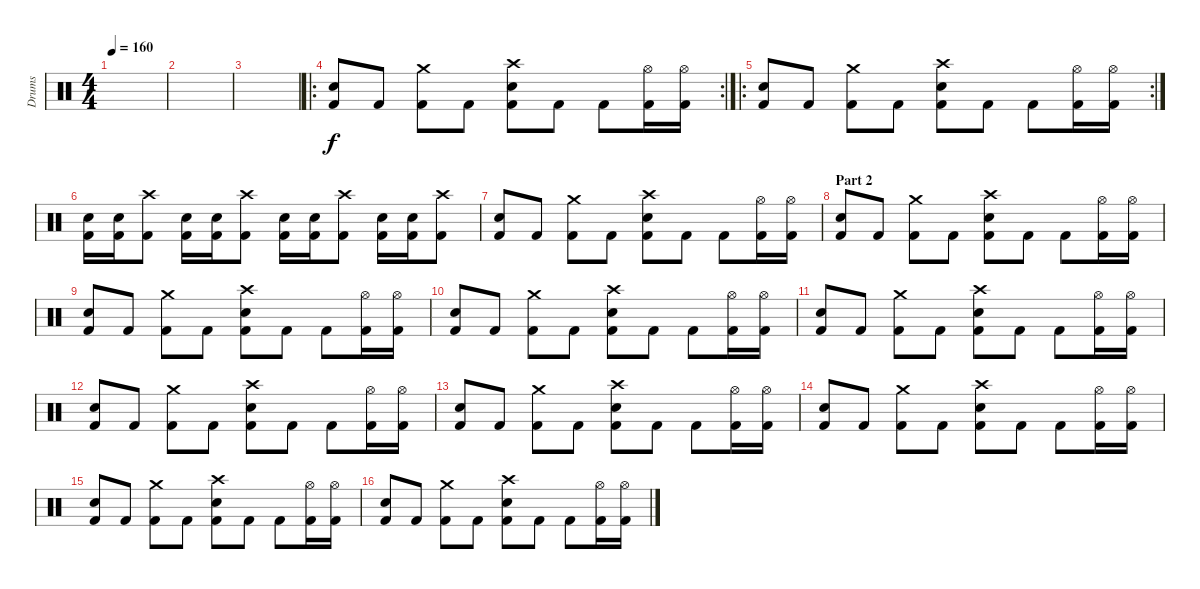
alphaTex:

\track ("Drums" "Drums") {instrument percussion}
\staff {score}
\articulation defaults
\ts (4 4)
\tempo 160
\clef neutral
\ks c
|
|
|
\ro
\rc 2
("Kick (hit) 2" "Electric Snare (hit)").8 "Kick (hit) 2".8 ("Kick (hit) 2" "Crash medium (hit)").8 "Kick (hit) 2".8 ("Kick (hit) 2" "Crash high (hit)" "Electric Snare (hit)").8 "Kick (hit) 2".8 "Kick (hit) 2".8 ("Kick (hit) 2" "Hi-Hat (open)").16 ("Kick (hit) 2" "Hi-Hat (open)").16 |
\ro
\rc 2
("Kick (hit) 2" "Electric Snare (hit)").8 "Kick (hit) 2".8 ("Kick (hit) 2" "Crash medium (hit)").8 "Kick (hit) 2".8 ("Kick (hit) 2" "Crash high (hit)" "Electric Snare (hit)").8 "Kick (hit) 2".8 "Kick (hit) 2".8 ("Kick (hit) 2" "Hi-Hat (open)").16 ("Kick (hit) 2" "Hi-Hat (open)").16 |
("Kick (hit) 2" "Electric Snare (hit)").16 ("Kick (hit) 2" "Electric Snare (hit)").16 ("Kick (hit) 2" "Crash high (hit)").8 ("Kick (hit) 2" "Electric Snare (hit)").16 ("Kick (hit) 2" "Electric Snare (hit)").16 ("Kick (hit) 2" "Crash high (hit)").8 ("Kick (hit) 2" "Electric Snare (hit)").16 ("Kick (hit) 2" "Electric Snare (hit)").16 ("Kick (hit) 2" "Crash high (hit)").8 ("Kick (hit) 2" "Electric Snare (hit)").16 ("Kick (hit) 2" "Electric Snare (hit)").16 ("Kick (hit) 2" "Crash high (hit)").8 |
("Kick (hit) 2" "Electric Snare (hit)").8 "Kick (hit) 2".8 ("Kick (hit) 2" "Crash medium (hit)").8 "Kick (hit) 2".8 ("Kick (hit) 2" "Crash high (hit)" "Electric Snare (hit)").8 "Kick (hit) 2".8 "Kick (hit) 2".8 ("Kick (hit) 2" "Hi-Hat (open)").16 ("Kick (hit) 2" "Hi-Hat (open)").16 |
\section ("" "Part 2")
("Kick (hit) 2" "Electric Snare (hit)").8 "Kick (hit) 2".8 ("Kick (hit) 2" "Crash medium (hit)").8 "Kick (hit) 2".8 ("Kick (hit) 2" "Crash high (hit)" "Electric Snare (hit)").8 "Kick (hit) 2".8 "Kick (hit) 2".8 ("Kick (hit) 2" "Hi-Hat (open)").16 ("Kick (hit) 2" "Hi-Hat (open)").16 |
("Kick (hit) 2" "Electric Snare (hit)").8 "Kick (hit) 2".8 ("Kick (hit) 2" "Crash medium (hit)").8 "Kick (hit) 2".8 ("Kick (hit) 2" "Crash high (hit)" "Electric Snare (hit)").8 "Kick (hit) 2".8 "Kick (hit) 2".8 ("Kick (hit) 2" "Hi-Hat (open)").16 ("Kick (hit) 2" "Hi-Hat (open)").16 |
("Kick (hit) 2" "Electric Snare (hit)").8 "Kick (hit) 2".8 ("Kick (hit) 2" "Crash medium (hit)").8 "Kick (hit) 2".8 ("Kick (hit) 2" "Crash high (hit)" "Electric Snare (hit)").8 "Kick (hit) 2".8 "Kick (hit) 2".8 ("Kick (hit) 2" "Hi-Hat (open)").16 ("Kick (hit) 2" "Hi-Hat (open)").16 |
("Kick (hit) 2" "Electric Snare (hit)").8 "Kick (hit) 2".8 ("Kick (hit) 2" "Crash medium (hit)").8 "Kick (hit) 2".8 ("Kick (hit) 2" "Crash high (hit)" "Electric Snare (hit)").8 "Kick (hit) 2".8 "Kick (hit) 2".8 ("Kick (hit) 2" "Hi-Hat (open)").16 ("Kick (hit) 2" "Hi-Hat (open)").16 |
("Kick (hit) 2" "Electric Snare (hit)").8 "Kick (hit) 2".8 ("Kick (hit) 2" "Crash medium (hit)").8 "Kick (hit) 2".8 ("Kick (hit) 2" "Crash high (hit)" "Electric Snare (hit)").8 "Kick (hit) 2".8 "Kick (hit) 2".8 ("Kick (hit) 2" "Hi-Hat (open)").16 ("Kick (hit) 2" "Hi-Hat (open)").16 |
("Kick (hit) 2" "Electric Snare (hit)").8 "Kick (hit) 2".8 ("Kick (hit) 2" "Crash medium (hit)").8 "Kick (hit) 2".8 ("Kick (hit) 2" "Crash high (hit)" "Electric Snare (hit)").8 "Kick (hit) 2".8 "Kick (hit) 2".8 ("Kick (hit) 2" "Hi-Hat (open)").16 ("Kick (hit) 2" "Hi-Hat (open)").16 |
("Kick (hit) 2" "Electric Snare (hit)").8 "Kick (hit) 2".8 ("Kick (hit) 2" "Crash medium (hit)").8 "Kick (hit) 2".8 ("Kick (hit) 2" "Crash high (hit)" "Electric Snare (hit)").8 "Kick (hit) 2".8 "Kick (hit) 2".8 ("Kick (hit) 2" "Hi-Hat (open)").16 ("Kick (hit) 2" "Hi-Hat (open)").16 |
("Kick (hit) 2" "Electric Snare (hit)").8 "Kick (hit) 2".8 ("Kick (hit) 2" "Crash medium (hit)").8 "Kick (hit) 2".8 ("Kick (hit) 2" "Crash high (hit)" "Electric Snare (hit)").8 "Kick (hit) 2".8 "Kick (hit) 2".8 ("Kick (hit) 2" "Hi-Hat (open)").16 ("Kick (hit) 2" "Hi-Hat (open)").16 |
("Kick (hit) 2" "Electric Snare (hit)").8 "Kick (hit) 2".8 ("Kick (hit) 2" "Crash medium (hit)").8 "Kick (hit) 2".8 ("Kick (hit) 2" "Crash high (hit)" "Electric Snare (hit)").8 "Kick (hit) 2".8 "Kick (hit) 2".8 ("Kick (hit) 2" "Hi-Hat (open)").16 ("Kick (hit) 2" "Hi-Hat (open)").16
